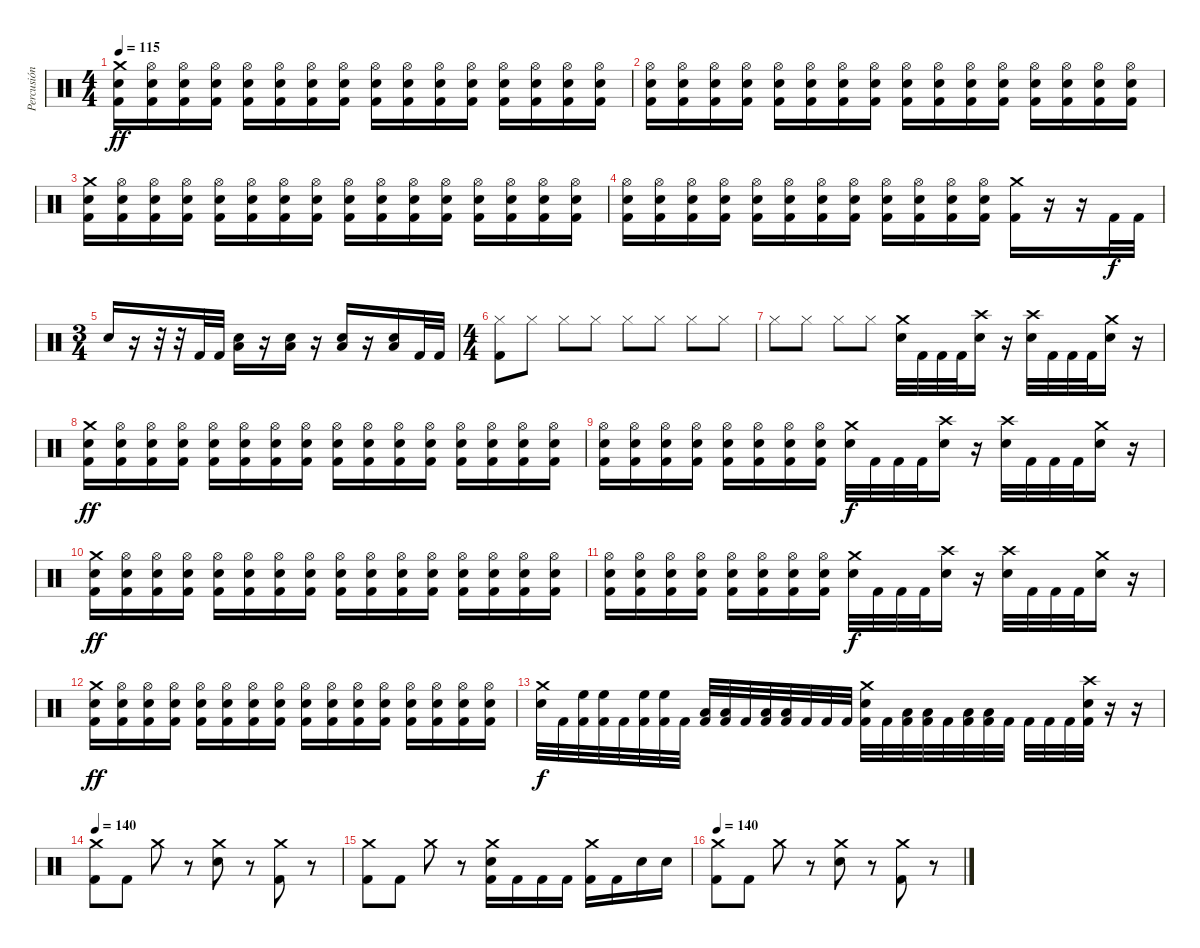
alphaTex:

\track ("Percusión" "Percusión") {instrument percussion}
\staff {score}
\articulation defaults
\ts (4 4)
\tempo 115
\clef neutral
\ks c
("Crash medium (hit)" "Electric Snare (hit)" "Kick (hit) 2").16{dy ff} ("Hi-Hat (open)" "Electric Snare (hit)" "Kick (hit) 2").16 ("Hi-Hat (open)" "Electric Snare (hit)" "Kick (hit) 2").16 ("Hi-Hat (open)" "Electric Snare (hit)" "Kick (hit) 2").16 ("Hi-Hat (open)" "Electric Snare (hit)" "Kick (hit) 2").16 ("Hi-Hat (open)" "Electric Snare (hit)" "Kick (hit) 2").16 ("Hi-Hat (open)" "Electric Snare (hit)" "Kick (hit) 2").16 ("Hi-Hat (open)" "Electric Snare (hit)" "Kick (hit) 2").16 ("Hi-Hat (open)" "Electric Snare (hit)" "Kick (hit) 2").16 ("Hi-Hat (open)" "Electric Snare (hit)" "Kick (hit) 2").16 ("Hi-Hat (open)" "Electric Snare (hit)" "Kick (hit) 2").16 ("Hi-Hat (open)" "Electric Snare (hit)" "Kick (hit) 2").16 ("Hi-Hat (open)" "Electric Snare (hit)" "Kick (hit) 2").16 ("Hi-Hat (open)" "Electric Snare (hit)" "Kick (hit) 2").16 ("Hi-Hat (open)" "Electric Snare (hit)" "Kick (hit) 2").16 ("Hi-Hat (open)" "Electric Snare (hit)" "Kick (hit) 2").16 |
("Hi-Hat (open)" "Electric Snare (hit)" "Kick (hit) 2").16 ("Hi-Hat (open)" "Electric Snare (hit)" "Kick (hit) 2").16 ("Hi-Hat (open)" "Electric Snare (hit)" "Kick (hit) 2").16 ("Hi-Hat (open)" "Electric Snare (hit)" "Kick (hit) 2").16 ("Hi-Hat (open)" "Electric Snare (hit)" "Kick (hit) 2").16 ("Hi-Hat (open)" "Electric Snare (hit)" "Kick (hit) 2").16 ("Hi-Hat (open)" "Electric Snare (hit)" "Kick (hit) 2").16 ("Hi-Hat (open)" "Electric Snare (hit)" "Kick (hit) 2").16 ("Hi-Hat (open)" "Electric Snare (hit)" "Kick (hit) 2").16 ("Hi-Hat (open)" "Electric Snare (hit)" "Kick (hit) 2").16 ("Hi-Hat (open)" "Electric Snare (hit)" "Kick (hit) 2").16 ("Hi-Hat (open)" "Electric Snare (hit)" "Kick (hit) 2").16 ("Hi-Hat (open)" "Electric Snare (hit)" "Kick (hit) 2").16 ("Hi-Hat (open)" "Electric Snare (hit)" "Kick (hit) 2").16 ("Hi-Hat (open)" "Electric Snare (hit)" "Kick (hit) 2").16 ("Hi-Hat (open)" "Electric Snare (hit)" "Kick (hit) 2").16 |
("Crash medium (hit)" "Electric Snare (hit)" "Kick (hit) 2").16 ("Hi-Hat (open)" "Electric Snare (hit)" "Kick (hit) 2").16 ("Hi-Hat (open)" "Electric Snare (hit)" "Kick (hit) 2").16 ("Hi-Hat (open)" "Electric Snare (hit)" "Kick (hit) 2").16 ("Hi-Hat (open)" "Electric Snare (hit)" "Kick (hit) 2").16 ("Hi-Hat (open)" "Electric Snare (hit)" "Kick (hit) 2").16 ("Hi-Hat (open)" "Electric Snare (hit)" "Kick (hit) 2").16 ("Hi-Hat (open)" "Electric Snare (hit)" "Kick (hit) 2").16 ("Hi-Hat (open)" "Electric Snare (hit)" "Kick (hit) 2").16 ("Hi-Hat (open)" "Electric Snare (hit)" "Kick (hit) 2").16 ("Hi-Hat (open)" "Electric Snare (hit)" "Kick (hit) 2").16 ("Hi-Hat (open)" "Electric Snare (hit)" "Kick (hit) 2").16 ("Hi-Hat (open)" "Electric Snare (hit)" "Kick (hit) 2").16 ("Hi-Hat (open)" "Electric Snare (hit)" "Kick (hit) 2").16 ("Hi-Hat (open)" "Electric Snare (hit)" "Kick (hit) 2").16 ("Hi-Hat (open)" "Electric Snare (hit)" "Kick (hit) 2").16 |
("Hi-Hat (open)" "Electric Snare (hit)" "Kick (hit) 2").16 ("Hi-Hat (open)" "Electric Snare (hit)" "Kick (hit) 2").16 ("Hi-Hat (open)" "Electric Snare (hit)" "Kick (hit) 2").16 ("Hi-Hat (open)" "Electric Snare (hit)" "Kick (hit) 2").16 ("Hi-Hat (open)" "Electric Snare (hit)" "Kick (hit) 2").16 ("Hi-Hat (open)" "Electric Snare (hit)" "Kick (hit) 2").16 ("Hi-Hat (open)" "Electric Snare (hit)" "Kick (hit) 2").16 ("Hi-Hat (open)" "Electric Snare (hit)" "Kick (hit) 2").16 ("Hi-Hat (open)" "Electric Snare (hit)" "Kick (hit) 2").16 ("Hi-Hat (open)" "Electric Snare (hit)" "Kick (hit) 2").16 ("Hi-Hat (open)" "Electric Snare (hit)" "Kick (hit) 2").16 ("Hi-Hat (open)" "Electric Snare (hit)" "Kick (hit) 2").16 ("Crash medium (hit)" "Kick (hit) 2").16 r.16 r.16 "Kick (hit) 2".32{dy f} "Kick (hit) 2".32 |
\ts (3 4)
"Electric Snare (hit)".16 r.16 r.32 r.32 "Kick (hit) 2".32 "Kick (hit) 2".32 ("Low Floor Tom (hit)" "Electric Snare (hit)").16 r.16 ("Low Floor Tom (hit)" "Electric Snare (hit)").16 r.16 ("Low Floor Tom (hit)" "Electric Snare (hit)").16 r.16 ("Low Floor Tom (hit)" "Electric Snare (hit)").16 "Kick (hit) 2".32 "Kick (hit) 2".32 |
\ts (4 4)
("Hi-Hat (closed)" "Kick (hit) 2").8 "Hi-Hat (closed)".8 "Hi-Hat (closed)".8 "Hi-Hat (closed)".8 "Hi-Hat (closed)".8 "Hi-Hat (closed)".8 "Hi-Hat (closed)".8 "Hi-Hat (closed)".8 |
"Hi-Hat (closed)".8 "Hi-Hat (closed)".8 "Hi-Hat (closed)".8 "Hi-Hat (closed)".8 ("Crash medium (hit)" "Electric Snare (hit)").32 "Kick (hit) 2".32 "Kick (hit) 2".32 "Kick (hit) 2".32 ("Crash high (hit)" "Electric Snare (hit)").16 r.16 ("Crash high (hit)" "Electric Snare (hit)").32 "Kick (hit) 2".32 "Kick (hit) 2".32 "Kick (hit) 2".32 ("Crash medium (hit)" "Electric Snare (hit)").16 r.16 |
("Crash medium (hit)" "Electric Snare (hit)" "Kick (hit) 2").16{dy ff} ("Hi-Hat (open)" "Electric Snare (hit)" "Kick (hit) 2").16 ("Hi-Hat (open)" "Electric Snare (hit)" "Kick (hit) 2").16 ("Hi-Hat (open)" "Electric Snare (hit)" "Kick (hit) 2").16 ("Hi-Hat (open)" "Electric Snare (hit)" "Kick (hit) 2").16 ("Hi-Hat (open)" "Electric Snare (hit)" "Kick (hit) 2").16 ("Hi-Hat (open)" "Electric Snare (hit)" "Kick (hit) 2").16 ("Hi-Hat (open)" "Electric Snare (hit)" "Kick (hit) 2").16 ("Hi-Hat (open)" "Electric Snare (hit)" "Kick (hit) 2").16 ("Hi-Hat (open)" "Electric Snare (hit)" "Kick (hit) 2").16 ("Hi-Hat (open)" "Electric Snare (hit)" "Kick (hit) 2").16 ("Hi-Hat (open)" "Electric Snare (hit)" "Kick (hit) 2").16 ("Hi-Hat (open)" "Electric Snare (hit)" "Kick (hit) 2").16 ("Hi-Hat (open)" "Electric Snare (hit)" "Kick (hit) 2").16 ("Hi-Hat (open)" "Electric Snare (hit)" "Kick (hit) 2").16 ("Hi-Hat (open)" "Electric Snare (hit)" "Kick (hit) 2").16 |
("Hi-Hat (open)" "Electric Snare (hit)" "Kick (hit) 2").16 ("Hi-Hat (open)" "Electric Snare (hit)" "Kick (hit) 2").16 ("Hi-Hat (open)" "Electric Snare (hit)" "Kick (hit) 2").16 ("Hi-Hat (open)" "Electric Snare (hit)" "Kick (hit) 2").16 ("Hi-Hat (open)" "Electric Snare (hit)" "Kick (hit) 2").16 ("Hi-Hat (open)" "Electric Snare (hit)" "Kick (hit) 2").16 ("Hi-Hat (open)" "Electric Snare (hit)" "Kick (hit) 2").16 ("Hi-Hat (open)" "Electric Snare (hit)" "Kick (hit) 2").16 ("Crash medium (hit)" "Electric Snare (hit)").32{dy f} "Kick (hit) 2".32 "Kick (hit) 2".32 "Kick (hit) 2".32 ("Crash high (hit)" "Electric Snare (hit)").16 r.16 ("Crash high (hit)" "Electric Snare (hit)").32 "Kick (hit) 2".32 "Kick (hit) 2".32 "Kick (hit) 2".32 ("Crash medium (hit)" "Electric Snare (hit)").16 r.16 |
("Crash medium (hit)" "Electric Snare (hit)" "Kick (hit) 2").16{dy ff} ("Hi-Hat (open)" "Electric Snare (hit)" "Kick (hit) 2").16 ("Hi-Hat (open)" "Electric Snare (hit)" "Kick (hit) 2").16 ("Hi-Hat (open)" "Electric Snare (hit)" "Kick (hit) 2").16 ("Hi-Hat (open)" "Electric Snare (hit)" "Kick (hit) 2").16 ("Hi-Hat (open)" "Electric Snare (hit)" "Kick (hit) 2").16 ("Hi-Hat (open)" "Electric Snare (hit)" "Kick (hit) 2").16 ("Hi-Hat (open)" "Electric Snare (hit)" "Kick (hit) 2").16 ("Hi-Hat (open)" "Electric Snare (hit)" "Kick (hit) 2").16 ("Hi-Hat (open)" "Electric Snare (hit)" "Kick (hit) 2").16 ("Hi-Hat (open)" "Electric Snare (hit)" "Kick (hit) 2").16 ("Hi-Hat (open)" "Electric Snare (hit)" "Kick (hit) 2").16 ("Hi-Hat (open)" "Electric Snare (hit)" "Kick (hit) 2").16 ("Hi-Hat (open)" "Electric Snare (hit)" "Kick (hit) 2").16 ("Hi-Hat (open)" "Electric Snare (hit)" "Kick (hit) 2").16 ("Hi-Hat (open)" "Electric Snare (hit)" "Kick (hit) 2").16 |
("Hi-Hat (open)" "Electric Snare (hit)" "Kick (hit) 2").16 ("Hi-Hat (open)" "Electric Snare (hit)" "Kick (hit) 2").16 ("Hi-Hat (open)" "Electric Snare (hit)" "Kick (hit) 2").16 ("Hi-Hat (open)" "Electric Snare (hit)" "Kick (hit) 2").16 ("Hi-Hat (open)" "Electric Snare (hit)" "Kick (hit) 2").16 ("Hi-Hat (open)" "Electric Snare (hit)" "Kick (hit) 2").16 ("Hi-Hat (open)" "Electric Snare (hit)" "Kick (hit) 2").16 ("Hi-Hat (open)" "Electric Snare (hit)" "Kick (hit) 2").16 ("Crash medium (hit)" "Electric Snare (hit)").32{dy f} "Kick (hit) 2".32 "Kick (hit) 2".32 "Kick (hit) 2".32 ("Crash high (hit)" "Electric Snare (hit)").16 r.16 ("Crash high (hit)" "Electric Snare (hit)").32 "Kick (hit) 2".32 "Kick (hit) 2".32 "Kick (hit) 2".32 ("Crash medium (hit)" "Electric Snare (hit)").16 r.16 |
("Crash medium (hit)" "Electric Snare (hit)" "Kick (hit) 2").16{dy ff} ("Hi-Hat (open)" "Electric Snare (hit)" "Kick (hit) 2").16 ("Hi-Hat (open)" "Electric Snare (hit)" "Kick (hit) 2").16 ("Hi-Hat (open)" "Electric Snare (hit)" "Kick (hit) 2").16 ("Hi-Hat (open)" "Electric Snare (hit)" "Kick (hit) 2").16 ("Hi-Hat (open)" "Electric Snare (hit)" "Kick (hit) 2").16 ("Hi-Hat (open)" "Electric Snare (hit)" "Kick (hit) 2").16 ("Hi-Hat (open)" "Electric Snare (hit)" "Kick (hit) 2").16 ("Hi-Hat (open)" "Electric Snare (hit)" "Kick (hit) 2").16 ("Hi-Hat (open)" "Electric Snare (hit)" "Kick (hit) 2").16 ("Hi-Hat (open)" "Electric Snare (hit)" "Kick (hit) 2").16 ("Hi-Hat (open)" "Electric Snare (hit)" "Kick (hit) 2").16 ("Hi-Hat (open)" "Electric Snare (hit)" "Kick (hit) 2").16 ("Hi-Hat (open)" "Electric Snare (hit)" "Kick (hit) 2").16 ("Hi-Hat (open)" "Electric Snare (hit)" "Kick (hit) 2").16 ("Hi-Hat (open)" "Electric Snare (hit)" "Kick (hit) 2").16 |
("Crash medium (hit)" "Electric Snare (hit)").32{dy f} "Kick (hit) 2".32 ("High Floor Tom (hit)" "Kick (hit) 2").32 ("High Floor Tom (hit)" "Kick (hit) 2").32 "Kick (hit) 2".32 ("High Floor Tom (hit)" "Kick (hit) 2").32 ("High Floor Tom (hit)" "Kick (hit) 2").32 "Kick (hit) 2".32 ("Low Tom (hit)" "Kick (hit) 2").32 ("Low Tom (hit)" "Kick (hit) 2").32 "Kick (hit) 2".32 ("Low Floor Tom (hit)" "Kick (hit) 2").32 ("Low Floor Tom (hit)" "Kick (hit) 2").32 "Kick (hit) 2".32 "Kick (hit) 2".32 "Kick (hit) 2".32 ("Crash medium (hit)" "Electric Snare (hit)" "Kick (hit) 2").32 "Kick (hit) 2".32 ("Low Tom (hit)" "Kick (hit) 2").32 ("Low Tom (hit)" "Kick (hit) 2").32 "Kick (hit) 2".32 ("Low Tom (hit)" "Kick (hit) 2").32 ("Low Tom (hit)" "Kick (hit) 2").32 "Kick (hit) 2".32 "Kick (hit) 2".32 "Kick (hit) 2".32 "Kick (hit) 2".32 ("Crash high (hit)" "Electric Snare (hit)" "Kick (hit) 2").32 r.16 r.16 |
\tempo 140
("Crash medium (hit)" "Kick (hit) 2").8 "Kick (hit) 2".8 "Crash medium (hit)".8 r.8 ("Crash medium (hit)" "Electric Snare (hit)").8 r.8 ("Crash medium (hit)" "Kick (hit) 2").8 r.8 |
("Crash medium (hit)" "Kick (hit) 2").8 "Kick (hit) 2".8 "Crash medium (hit)".8 r.8 ("Crash medium (hit)" "Electric Snare (hit)" "Kick (hit) 2").16 "Kick (hit) 2".16 "Kick (hit) 2".16 "Kick (hit) 2".16 ("Crash medium (hit)" "Kick (hit) 2").16 "Kick (hit) 2".16 "Electric Snare (hit)".16 "Electric Snare (hit)".16 |
\tempo 140
("Crash medium (hit)" "Kick (hit) 2").8 "Kick (hit) 2".8 "Crash medium (hit)".8 r.8 ("Crash medium (hit)" "Electric Snare (hit)").8 r.8 ("Crash medium (hit)" "Kick (hit) 2").8 r.8
